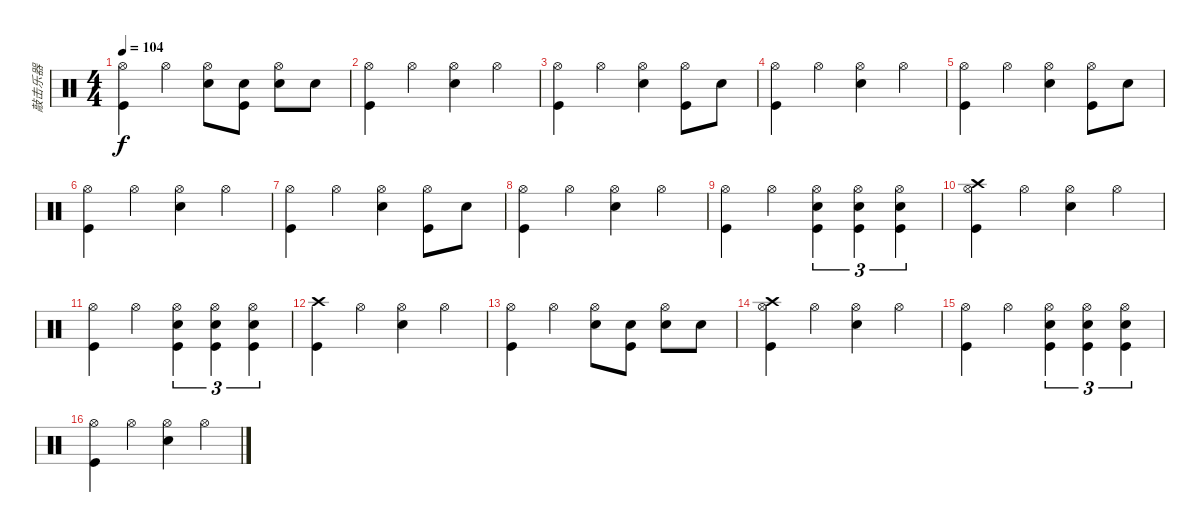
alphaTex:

\track ("敲击乐器" "敲击乐器") {instrument percussion}
\staff {score}
\articulation defaults
\ts (4 4)
\tempo 104
\clef neutral
\ks c
("Hi-Hat (open)" "Kick (hit)").4{dy f} "Hi-Hat (open)".4 ("Hi-Hat (open)" "Snare (hit) 2").8 ("Snare (hit) 2" "Kick (hit)").8 ("Hi-Hat (open)" "Snare (hit) 2").8 "Snare (hit) 2".8 |
("Hi-Hat (open)" "Kick (hit)").4 "Hi-Hat (open)".4 ("Hi-Hat (open)" "Snare (hit) 2").4 "Hi-Hat (open)".4 |
("Hi-Hat (open)" "Kick (hit)").4 "Hi-Hat (open)".4 ("Hi-Hat (open)" "Snare (hit) 2").4 ("Hi-Hat (open)" "Kick (hit)").8 "Electric Snare (hit)".8 |
("Hi-Hat (open)" "Kick (hit)").4 "Hi-Hat (open)".4 ("Hi-Hat (open)" "Snare (hit) 2").4 "Hi-Hat (open)".4 |
("Hi-Hat (open)" "Kick (hit)").4 "Hi-Hat (open)".4 ("Hi-Hat (open)" "Snare (hit) 2").4 ("Hi-Hat (open)" "Kick (hit)").8 "Electric Snare (hit)".8 |
("Hi-Hat (open)" "Kick (hit)").4 "Hi-Hat (open)".4 ("Hi-Hat (open)" "Snare (hit) 2").4 "Hi-Hat (open)".4 |
("Hi-Hat (open)" "Kick (hit)").4 "Hi-Hat (open)".4 ("Hi-Hat (open)" "Snare (hit) 2").4 ("Hi-Hat (open)" "Kick (hit)").8 "Electric Snare (hit)".8 |
("Hi-Hat (open)" "Kick (hit)").4 "Hi-Hat (open)".4 ("Hi-Hat (open)" "Snare (hit) 2").4 "Hi-Hat (open)".4 |
("Hi-Hat (open)" "Kick (hit)").4 "Hi-Hat (open)".4 ("Hi-Hat (open)" "Snare (hit) 2" "Kick (hit)").4{tu (3 2)} ("Hi-Hat (open)" "Snare (hit) 2" "Kick (hit)").4{tu (3 2)} ("Hi-Hat (open)" "Snare (hit) 2" "Kick (hit)").4{tu (3 2)} |
("Crash high (hit)" "Hi-Hat (open)" "Kick (hit)").4 "Hi-Hat (open)".4 ("Hi-Hat (open)" "Snare (hit) 2").4 "Hi-Hat (open)".4 |
("Hi-Hat (open)" "Kick (hit)").4 "Hi-Hat (open)".4 ("Hi-Hat (open)" "Snare (hit) 2" "Kick (hit)").4{tu (3 2)} ("Hi-Hat (open)" "Snare (hit) 2" "Kick (hit)").4{tu (3 2)} ("Hi-Hat (open)" "Snare (hit) 2" "Kick (hit)").4{tu (3 2)} |
("Crash high (hit)" "Kick (hit)").4 "Hi-Hat (open)".4 ("Hi-Hat (open)" "Snare (hit) 2").4 "Hi-Hat (open)".4 |
("Hi-Hat (open)" "Kick (hit)").4 "Hi-Hat (open)".4 ("Hi-Hat (open)" "Snare (hit) 2").8 ("Snare (hit) 2" "Kick (hit)").8 ("Hi-Hat (open)" "Snare (hit) 2").8 "Snare (hit) 2".8 |
("Crash high (hit)" "Hi-Hat (open)" "Kick (hit)").4 "Hi-Hat (open)".4 ("Hi-Hat (open)" "Snare (hit) 2").4 "Hi-Hat (open)".4 |
("Hi-Hat (open)" "Kick (hit)").4 "Hi-Hat (open)".4 ("Hi-Hat (open)" "Snare (hit) 2" "Kick (hit)").4{tu (3 2)} ("Hi-Hat (open)" "Snare (hit) 2" "Kick (hit)").4{tu (3 2)} ("Hi-Hat (open)" "Snare (hit) 2" "Kick (hit)").4{tu (3 2)} |
("Hi-Hat (open)" "Kick (hit)").4 "Hi-Hat (open)".4 ("Hi-Hat (open)" "Snare (hit) 2").4 "Hi-Hat (open)".4
